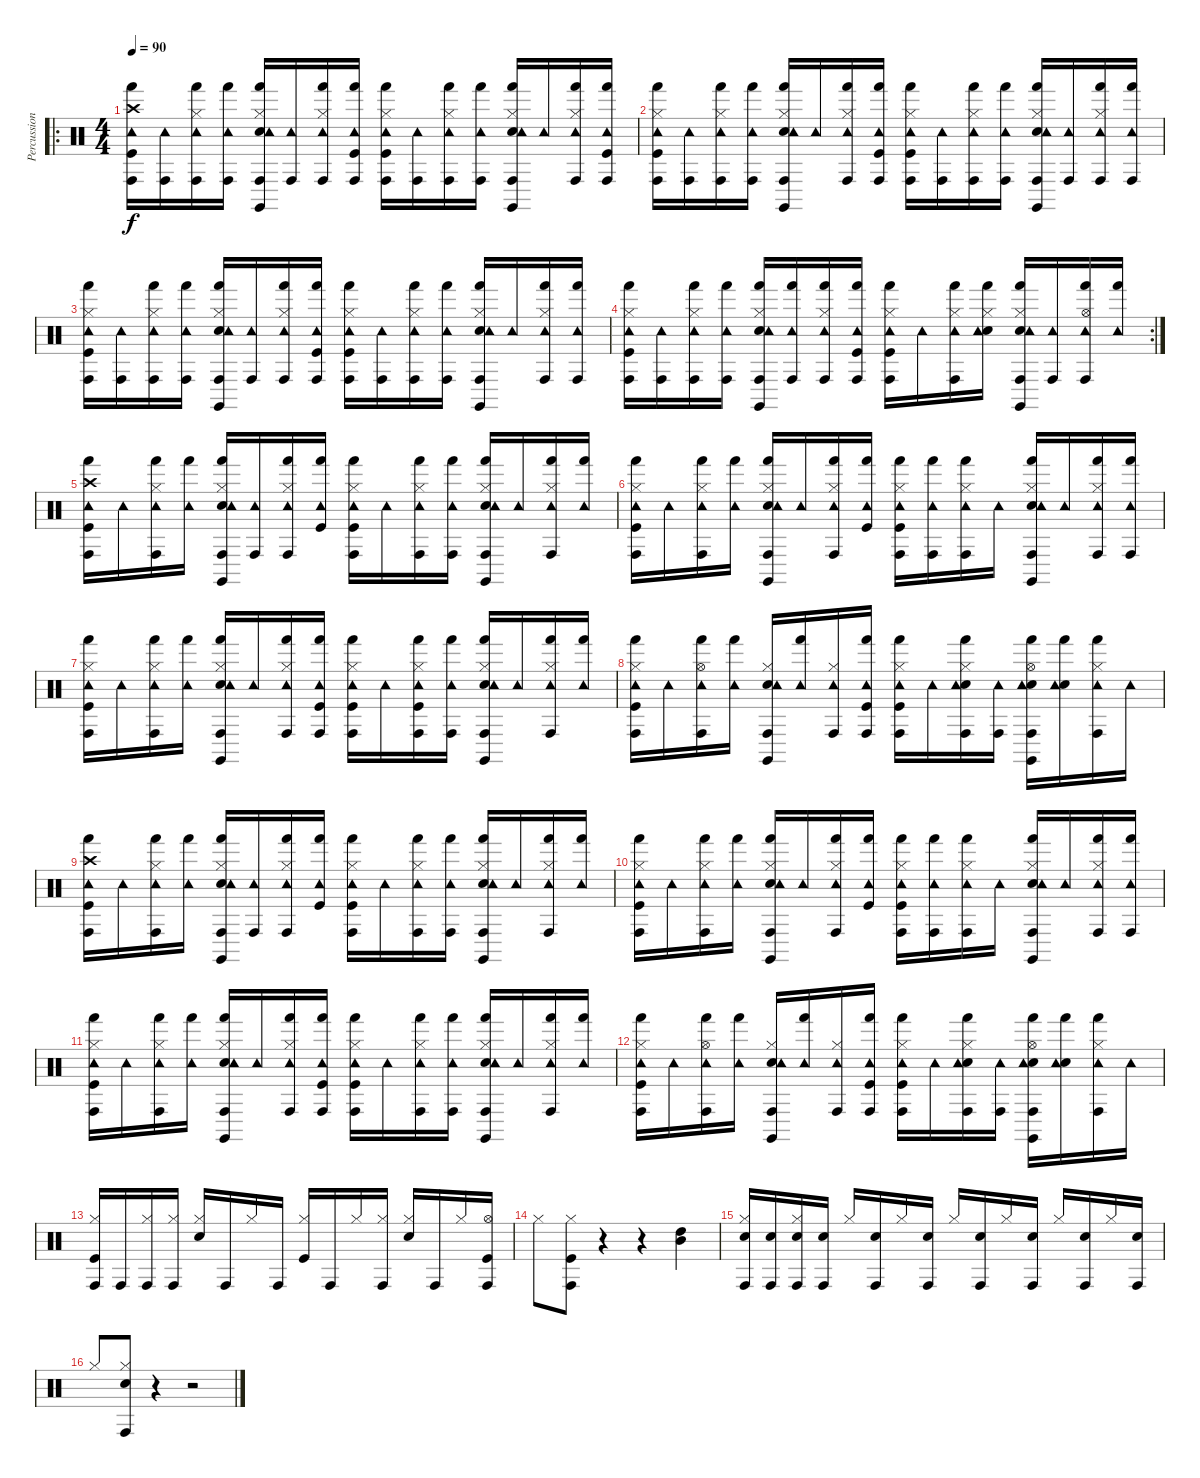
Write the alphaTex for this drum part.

\track ("Percussions" "Percussion") {instrument percussion}
\staff {score}
\articulation defaults
\ro
\ts (4 4)
\tempo 90
\clef neutral
\ks c
("Crash high (hit)" "Kick (hit)" "Hand (hit)" "Tambourine (hit)" "Conga high (hit)").16{dy f} ("Tambourine (hit)" "Conga high (hit)").16 ("Hi-Hat (closed)" "Hand (hit)" "Tambourine (hit)" "Conga high (hit)").16 ("Hand (hit)" "Tambourine (hit)" "Conga high (hit)").16 ("Hi-Hat (closed)" "Electric Snare (hit)" "Claves (hit)" "Hand (hit)" "Tambourine (hit)" "Conga high (hit)").16 ("Tambourine (hit)" "Conga high (hit)").16 ("Hi-Hat (closed)" "Hand (hit)" "Tambourine (hit)" "Conga high (hit)").16 ("Kick (hit)" "Hand (hit)" "Tambourine (hit)" "Conga high (hit)").16 ("Hi-Hat (closed)" "Kick (hit)" "Hand (hit)" "Tambourine (hit)" "Conga high (hit)").16 ("Tambourine (hit)" "Conga high (hit)").16 ("Hi-Hat (closed)" "Hand (hit)" "Tambourine (hit)" "Conga high (hit)").16 ("Hand (hit)" "Tambourine (hit)" "Conga high (hit)").16 ("Hi-Hat (closed)" "Electric Snare (hit)" "Claves (hit)" "Hand (hit)" "Tambourine (hit)" "Conga high (hit)").16 "Tambourine (hit)".16 ("Hi-Hat (closed)" "Hand (hit)" "Tambourine (hit)" "Conga high (hit)").16 ("Kick (hit)" "Hand (hit)" "Tambourine (hit)" "Conga high (hit)").16 |
("Hi-Hat (closed)" "Kick (hit)" "Hand (hit)" "Tambourine (hit)" "Conga high (hit)").16 ("Tambourine (hit)" "Conga high (hit)").16 ("Hi-Hat (closed)" "Hand (hit)" "Tambourine (hit)" "Conga high (hit)").16 ("Hand (hit)" "Tambourine (hit)" "Conga high (hit)").16 ("Hi-Hat (closed)" "Electric Snare (hit)" "Claves (hit)" "Hand (hit)" "Tambourine (hit)" "Conga high (hit)").16 "Tambourine (hit)".16 ("Hi-Hat (closed)" "Hand (hit)" "Tambourine (hit)" "Conga high (hit)").16 ("Kick (hit)" "Hand (hit)" "Tambourine (hit)" "Conga high (hit)").16 ("Hi-Hat (closed)" "Kick (hit)" "Hand (hit)" "Tambourine (hit)" "Conga high (hit)").16 ("Tambourine (hit)" "Conga high (hit)").16 ("Hi-Hat (closed)" "Hand (hit)" "Tambourine (hit)" "Conga high (hit)").16 ("Hand (hit)" "Tambourine (hit)" "Conga high (hit)").16 ("Hi-Hat (closed)" "Electric Snare (hit)" "Claves (hit)" "Hand (hit)" "Tambourine (hit)" "Conga high (hit)").16 ("Tambourine (hit)" "Conga high (hit)").16 ("Hi-Hat (closed)" "Hand (hit)" "Tambourine (hit)" "Conga high (hit)").16 ("Hand (hit)" "Tambourine (hit)" "Conga high (hit)").16 |
("Hi-Hat (closed)" "Kick (hit)" "Hand (hit)" "Tambourine (hit)" "Conga high (hit)").16 ("Tambourine (hit)" "Conga high (hit)").16 ("Hi-Hat (closed)" "Hand (hit)" "Tambourine (hit)" "Conga high (hit)").16 ("Hand (hit)" "Tambourine (hit)" "Conga high (hit)").16 ("Hi-Hat (closed)" "Electric Snare (hit)" "Claves (hit)" "Hand (hit)" "Tambourine (hit)" "Conga high (hit)").16 ("Tambourine (hit)" "Conga high (hit)").16 ("Hi-Hat (closed)" "Hand (hit)" "Tambourine (hit)" "Conga high (hit)").16 ("Kick (hit)" "Hand (hit)" "Tambourine (hit)" "Conga high (hit)").16 ("Hi-Hat (closed)" "Kick (hit)" "Hand (hit)" "Tambourine (hit)" "Conga high (hit)").16 ("Tambourine (hit)" "Conga high (hit)").16 ("Hi-Hat (closed)" "Hand (hit)" "Tambourine (hit)" "Conga high (hit)").16 ("Hand (hit)" "Tambourine (hit)" "Conga high (hit)").16 ("Hi-Hat (closed)" "Electric Snare (hit)" "Claves (hit)" "Hand (hit)" "Tambourine (hit)" "Conga high (hit)").16 "Tambourine (hit)".16 ("Hi-Hat (closed)" "Hand (hit)" "Tambourine (hit)" "Conga high (hit)").16 ("Hand (hit)" "Tambourine (hit)" "Conga high (hit)").16 |
\rc 2
("Hi-Hat (closed)" "Kick (hit)" "Hand (hit)" "Tambourine (hit)" "Conga high (hit)").16 ("Tambourine (hit)" "Conga high (hit)").16 ("Hi-Hat (closed)" "Hand (hit)" "Tambourine (hit)" "Conga high (hit)").16 ("Hand (hit)" "Tambourine (hit)" "Conga high (hit)").16 ("Hi-Hat (closed)" "Electric Snare (hit)" "Claves (hit)" "Hand (hit)" "Tambourine (hit)" "Conga high (hit)").16 ("Hand (hit)" "Tambourine (hit)" "Conga high (hit)").16 ("Hi-Hat (closed)" "Hand (hit)" "Tambourine (hit)" "Conga high (hit)").16 ("Kick (hit)" "Hand (hit)" "Tambourine (hit)" "Conga high (hit)").16 ("Hi-Hat (closed)" "Kick (hit)" "Hand (hit)" "Tambourine (hit)" "Conga high (hit)").16 "Tambourine (hit)".16 ("Hi-Hat (closed)" "Hand (hit)" "Tambourine (hit)" "Conga high (hit)").16 ("Hi-Hat (closed)" "Electric Snare (hit)" "Hand (hit)" "Tambourine (hit)").16 ("Hi-Hat (closed)" "Electric Snare (hit)" "Claves (hit)" "Hand (hit)" "Tambourine (hit)" "Conga high (hit)").16 ("Tambourine (hit)" "Conga high (hit)").16 ("Hi-Hat (open)" "Hand (hit)" "Tambourine (hit)" "Conga high (hit)").16 ("Hand (hit)" "Tambourine (hit)").16 |
("Crash high (hit)" "Kick (hit)" "Hand (hit)" "Tambourine (hit)" "Conga high (hit)").16 "Tambourine (hit)".16 ("Hi-Hat (closed)" "Hand (hit)" "Tambourine (hit)" "Conga high (hit)").16 ("Hand (hit)" "Tambourine (hit)").16 ("Hi-Hat (closed)" "Electric Snare (hit)" "Claves (hit)" "Hand (hit)" "Tambourine (hit)" "Conga high (hit)").16 ("Tambourine (hit)" "Conga high (hit)").16 ("Hi-Hat (closed)" "Hand (hit)" "Tambourine (hit)" "Conga high (hit)").16 ("Kick (hit)" "Hand (hit)" "Tambourine (hit)").16 ("Hi-Hat (closed)" "Kick (hit)" "Hand (hit)" "Tambourine (hit)" "Conga high (hit)").16 "Tambourine (hit)".16 ("Hi-Hat (closed)" "Hand (hit)" "Tambourine (hit)" "Conga high (hit)").16 ("Hand (hit)" "Tambourine (hit)" "Conga high (hit)").16 ("Hi-Hat (closed)" "Electric Snare (hit)" "Claves (hit)" "Hand (hit)" "Tambourine (hit)" "Conga high (hit)").16 "Tambourine (hit)".16 ("Hi-Hat (closed)" "Hand (hit)" "Tambourine (hit)" "Conga high (hit)").16 ("Hand (hit)" "Tambourine (hit)").16 |
("Hi-Hat (closed)" "Kick (hit)" "Hand (hit)" "Tambourine (hit)" "Conga high (hit)").16 "Tambourine (hit)".16 ("Hi-Hat (closed)" "Hand (hit)" "Tambourine (hit)" "Conga high (hit)").16 ("Hand (hit)" "Tambourine (hit)").16 ("Hi-Hat (closed)" "Electric Snare (hit)" "Claves (hit)" "Hand (hit)" "Tambourine (hit)" "Conga high (hit)").16 "Tambourine (hit)".16 ("Hi-Hat (closed)" "Hand (hit)" "Tambourine (hit)" "Conga high (hit)").16 ("Kick (hit)" "Hand (hit)" "Tambourine (hit)").16 ("Hi-Hat (closed)" "Kick (hit)" "Hand (hit)" "Tambourine (hit)" "Conga high (hit)").16 ("Hand (hit)" "Tambourine (hit)" "Conga high (hit)").16 ("Hi-Hat (closed)" "Hand (hit)" "Tambourine (hit)" "Conga high (hit)").16 "Tambourine (hit)".16 ("Hi-Hat (closed)" "Electric Snare (hit)" "Claves (hit)" "Hand (hit)" "Tambourine (hit)" "Conga high (hit)").16 "Tambourine (hit)".16 ("Hi-Hat (closed)" "Hand (hit)" "Tambourine (hit)" "Conga high (hit)").16 ("Hand (hit)" "Tambourine (hit)" "Conga high (hit)").16 |
("Hi-Hat (closed)" "Kick (hit)" "Hand (hit)" "Tambourine (hit)" "Conga high (hit)").16 "Tambourine (hit)".16 ("Hi-Hat (closed)" "Hand (hit)" "Tambourine (hit)" "Conga high (hit)").16 ("Hand (hit)" "Tambourine (hit)").16 ("Hi-Hat (closed)" "Electric Snare (hit)" "Claves (hit)" "Hand (hit)" "Tambourine (hit)" "Conga high (hit)").16 "Tambourine (hit)".16 ("Hi-Hat (closed)" "Hand (hit)" "Tambourine (hit)" "Conga high (hit)").16 ("Kick (hit)" "Hand (hit)" "Tambourine (hit)" "Conga high (hit)").16 ("Hi-Hat (closed)" "Kick (hit)" "Hand (hit)" "Tambourine (hit)" "Conga high (hit)").16 "Tambourine (hit)".16 ("Hi-Hat (closed)" "Kick (hit)" "Hand (hit)" "Tambourine (hit)" "Conga high (hit)").16 ("Hand (hit)" "Tambourine (hit)" "Conga high (hit)").16 ("Hi-Hat (closed)" "Electric Snare (hit)" "Claves (hit)" "Hand (hit)" "Tambourine (hit)" "Conga high (hit)").16 "Tambourine (hit)".16 ("Hi-Hat (closed)" "Hand (hit)" "Tambourine (hit)" "Conga high (hit)").16 ("Hand (hit)" "Tambourine (hit)").16 |
("Hi-Hat (closed)" "Kick (hit)" "Hand (hit)" "Tambourine (hit)" "Conga high (hit)").16 "Tambourine (hit)".16 ("Hi-Hat (open)" "Hand (hit)" "Tambourine (hit)" "Conga high (hit)").16 ("Hand (hit)" "Tambourine (hit)").16 ("Hi-Hat (closed)" "Electric Snare (hit)" "Claves (hit)" "Tambourine (hit)" "Conga high (hit)").16 ("Hand (hit)" "Tambourine (hit)").16 ("Hi-Hat (closed)" "Tambourine (hit)" "Conga high (hit)").16 ("Kick (hit)" "Hand (hit)" "Tambourine (hit)" "Conga high (hit)").16 ("Hi-Hat (closed)" "Kick (hit)" "Hand (hit)" "Tambourine (hit)" "Conga high (hit)").16 "Tambourine (hit)".16 ("Hi-Hat (closed)" "Electric Snare (hit)" "Hand (hit)" "Tambourine (hit)" "Conga high (hit)").16 ("Tambourine (hit)" "Conga high (hit)").16 ("Hi-Hat (open)" "Electric Snare (hit)" "Claves (hit)" "Hand (hit)" "Tambourine (hit)" "Conga high (hit)").16 ("Electric Snare (hit)" "Hand (hit)" "Tambourine (hit)").16 ("Hi-Hat (closed)" "Hand (hit)" "Tambourine (hit)" "Conga high (hit)").16 "Tambourine (hit)".16 |
("Crash high (hit)" "Kick (hit)" "Hand (hit)" "Tambourine (hit)" "Conga high (hit)").16 "Tambourine (hit)".16 ("Hi-Hat (closed)" "Hand (hit)" "Tambourine (hit)" "Conga high (hit)").16 ("Hand (hit)" "Tambourine (hit)").16 ("Hi-Hat (closed)" "Electric Snare (hit)" "Claves (hit)" "Hand (hit)" "Tambourine (hit)" "Conga high (hit)").16 ("Tambourine (hit)" "Conga high (hit)").16 ("Hi-Hat (closed)" "Hand (hit)" "Tambourine (hit)" "Conga high (hit)").16 ("Kick (hit)" "Hand (hit)" "Tambourine (hit)").16 ("Hi-Hat (closed)" "Kick (hit)" "Hand (hit)" "Tambourine (hit)" "Conga high (hit)").16 "Tambourine (hit)".16 ("Hi-Hat (closed)" "Hand (hit)" "Tambourine (hit)" "Conga high (hit)").16 ("Hand (hit)" "Tambourine (hit)" "Conga high (hit)").16 ("Hi-Hat (closed)" "Electric Snare (hit)" "Claves (hit)" "Hand (hit)" "Tambourine (hit)" "Conga high (hit)").16 "Tambourine (hit)".16 ("Hi-Hat (closed)" "Hand (hit)" "Tambourine (hit)" "Conga high (hit)").16 ("Hand (hit)" "Tambourine (hit)").16 |
("Hi-Hat (closed)" "Kick (hit)" "Hand (hit)" "Tambourine (hit)" "Conga high (hit)").16 "Tambourine (hit)".16 ("Hi-Hat (closed)" "Hand (hit)" "Tambourine (hit)" "Conga high (hit)").16 ("Hand (hit)" "Tambourine (hit)").16 ("Hi-Hat (closed)" "Electric Snare (hit)" "Claves (hit)" "Hand (hit)" "Tambourine (hit)" "Conga high (hit)").16 "Tambourine (hit)".16 ("Hi-Hat (closed)" "Hand (hit)" "Tambourine (hit)" "Conga high (hit)").16 ("Kick (hit)" "Hand (hit)" "Tambourine (hit)").16 ("Hi-Hat (closed)" "Kick (hit)" "Hand (hit)" "Tambourine (hit)" "Conga high (hit)").16 ("Hand (hit)" "Tambourine (hit)" "Conga high (hit)").16 ("Hi-Hat (closed)" "Hand (hit)" "Tambourine (hit)" "Conga high (hit)").16 "Tambourine (hit)".16 ("Hi-Hat (closed)" "Electric Snare (hit)" "Claves (hit)" "Hand (hit)" "Tambourine (hit)" "Conga high (hit)").16 "Tambourine (hit)".16 ("Hi-Hat (closed)" "Hand (hit)" "Tambourine (hit)" "Conga high (hit)").16 ("Hand (hit)" "Tambourine (hit)" "Conga high (hit)").16 |
("Hi-Hat (closed)" "Kick (hit)" "Hand (hit)" "Tambourine (hit)" "Conga high (hit)").16 "Tambourine (hit)".16 ("Hi-Hat (closed)" "Hand (hit)" "Tambourine (hit)" "Conga high (hit)").16 ("Hand (hit)" "Tambourine (hit)").16 ("Hi-Hat (closed)" "Electric Snare (hit)" "Claves (hit)" "Hand (hit)" "Tambourine (hit)" "Conga high (hit)").16 "Tambourine (hit)".16 ("Hi-Hat (closed)" "Hand (hit)" "Tambourine (hit)" "Conga high (hit)").16 ("Kick (hit)" "Hand (hit)" "Tambourine (hit)" "Conga high (hit)").16 ("Hi-Hat (closed)" "Kick (hit)" "Hand (hit)" "Tambourine (hit)" "Conga high (hit)").16 "Tambourine (hit)".16 ("Hi-Hat (closed)" "Hand (hit)" "Tambourine (hit)" "Conga high (hit)").16 ("Hand (hit)" "Tambourine (hit)" "Conga high (hit)").16 ("Hi-Hat (closed)" "Electric Snare (hit)" "Claves (hit)" "Hand (hit)" "Tambourine (hit)" "Conga high (hit)").16 "Tambourine (hit)".16 ("Hi-Hat (closed)" "Hand (hit)" "Tambourine (hit)" "Conga high (hit)").16 ("Hand (hit)" "Tambourine (hit)").16 |
("Hi-Hat (closed)" "Kick (hit)" "Hand (hit)" "Tambourine (hit)" "Conga high (hit)").16 "Tambourine (hit)".16 ("Hi-Hat (open)" "Hand (hit)" "Tambourine (hit)" "Conga high (hit)").16 ("Hand (hit)" "Tambourine (hit)").16 ("Hi-Hat (closed)" "Electric Snare (hit)" "Claves (hit)" "Tambourine (hit)" "Conga high (hit)").16 ("Hand (hit)" "Tambourine (hit)").16 ("Hi-Hat (closed)" "Tambourine (hit)" "Conga high (hit)").16 ("Kick (hit)" "Hand (hit)" "Tambourine (hit)" "Conga high (hit)").16 ("Hi-Hat (closed)" "Kick (hit)" "Hand (hit)" "Tambourine (hit)" "Conga high (hit)").16 "Tambourine (hit)".16 ("Hi-Hat (closed)" "Electric Snare (hit)" "Hand (hit)" "Tambourine (hit)" "Conga high (hit)").16 ("Tambourine (hit)" "Conga high (hit)").16 ("Hi-Hat (open)" "Electric Snare (hit)" "Claves (hit)" "Hand (hit)" "Tambourine (hit)" "Conga high (hit)").16 ("Electric Snare (hit)" "Hand (hit)" "Tambourine (hit)").16 ("Hi-Hat (closed)" "Hand (hit)" "Tambourine (hit)" "Conga high (hit)").16 "Tambourine (hit)".16 |
("Hi-Hat (closed)" "Kick (hit)" "Conga high (hit)").16 "Conga high (hit)".16 ("Hi-Hat (closed)" "Conga high (hit)").16 ("Hi-Hat (closed)" "Conga high (hit)").16 ("Hi-Hat (closed)" "Electric Snare (hit)").16 "Conga high (hit)".16 "Hi-Hat (closed)".16 "Conga high (hit)".16 ("Hi-Hat (closed)" "Kick (hit)").16 "Conga high (hit)".16 "Hi-Hat (closed)".16 ("Hi-Hat (closed)" "Conga high (hit)").16 ("Hi-Hat (closed)" "Electric Snare (hit)").16 "Conga high (hit)".16 "Hi-Hat (closed)".16 ("Hi-Hat (open)" "Kick (hit)" "Conga high (hit)").16 |
"Hi-Hat (closed)".8 ("Hi-Hat (closed)" "Kick (hit)" "Conga high (hit)").8 r.4 r.4 ("High Tom (hit)" "Mid Tom (hit)").4 |
("Hi-Hat (closed)" "Electric Snare (hit)" "Conga high (hit)").16 ("Electric Snare (hit)" "Conga high (hit)").16 ("Hi-Hat (closed)" "Electric Snare (hit)" "Conga high (hit)").16 ("Electric Snare (hit)" "Conga high (hit)").16 "Hi-Hat (closed)".16 ("Electric Snare (hit)" "Conga high (hit)").16 "Hi-Hat (closed)".16 ("Electric Snare (hit)" "Conga high (hit)").16 "Hi-Hat (closed)".16 ("Electric Snare (hit)" "Conga high (hit)").16 "Hi-Hat (closed)".16 ("Electric Snare (hit)" "Conga high (hit)").16 "Hi-Hat (closed)".16 ("Electric Snare (hit)" "Conga high (hit)").16 "Hi-Hat (closed)".16 ("Electric Snare (hit)" "Conga high (hit)").16 |
"Hi-Hat (closed)".8 ("Hi-Hat (closed)" "Electric Snare (hit)" "Conga high (hit)").8 r.4 r.2
